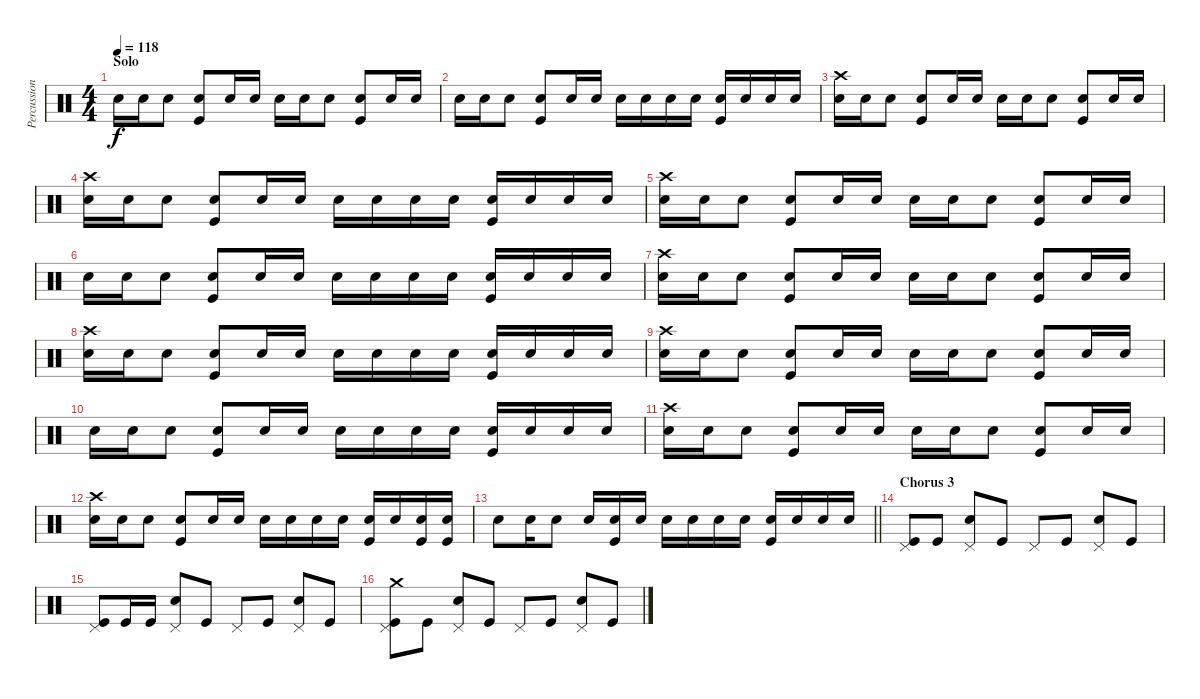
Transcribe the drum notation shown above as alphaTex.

\track ("Percussion" "Percussion") {instrument percussion}
\staff {score}
\articulation defaults
\ts (4 4)
\section ("" "Solo")
\tempo 118
\clef neutral
\ks c "Snare (hit) 2".16{dy f} "Snare (hit) 2".16 "Snare (hit) 2".8
("Electric Snare (hit)" "Kick (hit)").8 "Snare (hit) 2".16 "Snare (hit) 2".16 "Snare (hit) 2".16 "Snare (hit) 2".16 "Snare (hit) 2".8 ("Electric Snare (hit)" "Kick (hit)").8 "Snare (hit) 2".16 "Snare (hit) 2".16 |
"Snare (hit) 2".16 "Snare (hit) 2".16 "Snare (hit) 2".8 ("Electric Snare (hit)" "Kick (hit)").8 "Snare (hit) 2".16 "Snare (hit) 2".16 "Snare (hit) 2".16 "Snare (hit) 2".16 "Snare (hit) 2".16 "Snare (hit) 2".16 ("Electric Snare (hit)" "Kick (hit)").16 "Snare (hit) 2".16 "Snare (hit) 2".16 "Snare (hit) 2".16 |
("Crash high (hit)" "Snare (hit) 2").16 "Snare (hit) 2".16 "Snare (hit) 2".8 ("Electric Snare (hit)" "Kick (hit)").8 "Snare (hit) 2".16 "Snare (hit) 2".16 "Snare (hit) 2".16 "Snare (hit) 2".16 "Snare (hit) 2".8 ("Electric Snare (hit)" "Kick (hit)").8 "Snare (hit) 2".16 "Snare (hit) 2".16 |
("Crash high (hit)" "Snare (hit) 2").16 "Snare (hit) 2".16 "Snare (hit) 2".8 ("Electric Snare (hit)" "Kick (hit)").8 "Snare (hit) 2".16 "Snare (hit) 2".16 "Snare (hit) 2".16 "Snare (hit) 2".16 "Snare (hit) 2".16 "Snare (hit) 2".16 ("Electric Snare (hit)" "Kick (hit)").16 "Snare (hit) 2".16 "Snare (hit) 2".16 "Snare (hit) 2".16 |
("Crash high (hit)" "Snare (hit) 2").16 "Snare (hit) 2".16 "Snare (hit) 2".8 ("Electric Snare (hit)" "Kick (hit)").8 "Snare (hit) 2".16 "Snare (hit) 2".16 "Snare (hit) 2".16 "Snare (hit) 2".16 "Snare (hit) 2".8 ("Electric Snare (hit)" "Kick (hit)").8 "Snare (hit) 2".16 "Snare (hit) 2".16 |
"Snare (hit) 2".16 "Snare (hit) 2".16 "Snare (hit) 2".8 ("Electric Snare (hit)" "Kick (hit)").8 "Snare (hit) 2".16 "Snare (hit) 2".16 "Snare (hit) 2".16 "Snare (hit) 2".16 "Snare (hit) 2".16 "Snare (hit) 2".16 ("Electric Snare (hit)" "Kick (hit)").16 "Snare (hit) 2".16 "Snare (hit) 2".16 "Snare (hit) 2".16 |
("Crash high (hit)" "Snare (hit) 2").16 "Snare (hit) 2".16 "Snare (hit) 2".8 ("Electric Snare (hit)" "Kick (hit)").8 "Snare (hit) 2".16 "Snare (hit) 2".16 "Snare (hit) 2".16 "Snare (hit) 2".16 "Snare (hit) 2".8 ("Electric Snare (hit)" "Kick (hit)").8 "Snare (hit) 2".16 "Snare (hit) 2".16 |
("Crash high (hit)" "Snare (hit) 2").16 "Snare (hit) 2".16 "Snare (hit) 2".8 ("Electric Snare (hit)" "Kick (hit)").8 "Snare (hit) 2".16 "Snare (hit) 2".16 "Snare (hit) 2".16 "Snare (hit) 2".16 "Snare (hit) 2".16 "Snare (hit) 2".16 ("Electric Snare (hit)" "Kick (hit)").16 "Snare (hit) 2".16 "Snare (hit) 2".16 "Snare (hit) 2".16 |
("Crash high (hit)" "Snare (hit) 2").16 "Snare (hit) 2".16 "Snare (hit) 2".8 ("Electric Snare (hit)" "Kick (hit)").8 "Snare (hit) 2".16 "Snare (hit) 2".16 "Snare (hit) 2".16 "Snare (hit) 2".16 "Snare (hit) 2".8 ("Electric Snare (hit)" "Kick (hit)").8 "Snare (hit) 2".16 "Snare (hit) 2".16 |
"Snare (hit) 2".16 "Snare (hit) 2".16 "Snare (hit) 2".8 ("Electric Snare (hit)" "Kick (hit)").8 "Snare (hit) 2".16 "Snare (hit) 2".16 "Snare (hit) 2".16 "Snare (hit) 2".16 "Snare (hit) 2".16 "Snare (hit) 2".16 ("Electric Snare (hit)" "Kick (hit)").16 "Snare (hit) 2".16 "Snare (hit) 2".16 "Snare (hit) 2".16 |
("Crash high (hit)" "Snare (hit) 2").16 "Snare (hit) 2".16 "Snare (hit) 2".8 ("Electric Snare (hit)" "Kick (hit)").8 "Snare (hit) 2".16 "Snare (hit) 2".16 "Snare (hit) 2".16 "Snare (hit) 2".16 "Snare (hit) 2".8 ("Electric Snare (hit)" "Kick (hit)").8 "Snare (hit) 2".16 "Snare (hit) 2".16 |
("Crash high (hit)" "Snare (hit) 2").16 "Snare (hit) 2".16 "Snare (hit) 2".8 ("Electric Snare (hit)" "Kick (hit)").8 "Snare (hit) 2".16 "Snare (hit) 2".16 "Snare (hit) 2".16 "Snare (hit) 2".16 "Snare (hit) 2".16 "Snare (hit) 2".16 ("Electric Snare (hit)" "Kick (hit)").16 "Electric Snare (hit)".16 ("Electric Snare (hit)" "Kick (hit)").16 ("Electric Snare (hit)" "Kick (hit)").16 |
\barLineRight lightlight "Snare (hit) 2".8 "Electric Snare (hit)".16 "Electric Snare (hit)".8 "Electric Snare (hit)".16
("Electric Snare (hit)" "Kick (hit)").16 "Electric Snare (hit)".16 "Electric Snare (hit)".16 "Electric Snare (hit)".16 "Electric Snare (hit)".16 "Electric Snare (hit)".16 ("Electric Snare (hit)" "Kick (hit)").16 "Electric Snare (hit)".16 "Electric Snare (hit)".16 "Electric Snare (hit)".16 |
\section ("" "Chorus 3")
("Pedal Hi-Hat (hit)" "Kick (hit)").8 "Kick (hit)".8 ("Pedal Hi-Hat (hit)" "Electric Snare (hit)").8 "Kick (hit)".8 "Pedal Hi-Hat (hit)".8 "Kick (hit)".8 ("Pedal Hi-Hat (hit)" "Electric Snare (hit)").8 "Kick (hit)".8 |
("Pedal Hi-Hat (hit)" "Kick (hit)").8 "Kick (hit)".16 "Kick (hit)".16 ("Pedal Hi-Hat (hit)" "Electric Snare (hit)").8 "Kick (hit)".8 "Pedal Hi-Hat (hit)".8 "Kick (hit)".8 ("Pedal Hi-Hat (hit)" "Electric Snare (hit)").8 "Kick (hit)".8 |
("Crash medium (hit)" "Pedal Hi-Hat (hit)" "Kick (hit)").8 "Kick (hit)".8 ("Pedal Hi-Hat (hit)" "Electric Snare (hit)").8 "Kick (hit)".8 "Pedal Hi-Hat (hit)".8 "Kick (hit)".8 ("Pedal Hi-Hat (hit)" "Electric Snare (hit)").8 "Kick (hit)".8
